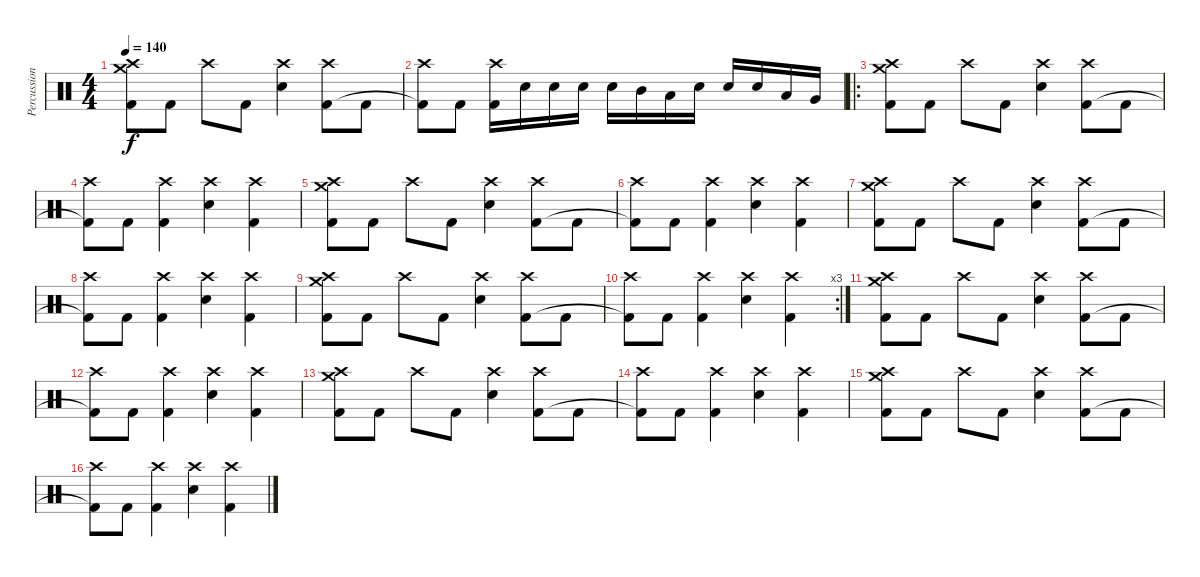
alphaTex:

\track ("Percussion" "Percussion") {instrument percussion}
\staff {score}
\articulation defaults
\ts (4 4)
\tempo 140
\clef neutral
\ks c
("Crash medium (hit)" "Crash high (hit)" "Kick (hit) 2").8{dy f} "Kick (hit) 2".8 "Crash high (hit)".8 "Kick (hit) 2".8 ("Crash high (hit)" "Electric Snare (hit)").4 ("Crash high (hit)" "Kick (hit) 2").8 "Kick (hit) 2".8 |
("Crash high (hit)" "Kick (hit) 2"{t}).8 "Kick (hit) 2".8 ("Crash high (hit)" "Kick (hit) 2").16 "Electric Snare (hit)".16 "Electric Snare (hit)".16 "Electric Snare (hit)".16 "Electric Snare (hit)".16 "Mid Tom (hit)".16 "Low Tom (hit)".16 "Electric Snare (hit)".16 "Electric Snare (hit)".16 "Electric Snare (hit)".16 "Low Tom (hit)".16 "Very Low Tom (hit)".16 |
\ro
("Crash medium (hit)" "Crash high (hit)" "Kick (hit) 2").8 "Kick (hit) 2".8 "Crash high (hit)".8 "Kick (hit) 2".8 ("Crash high (hit)" "Electric Snare (hit)").4 ("Crash high (hit)" "Kick (hit) 2").8 "Kick (hit) 2".8 |
("Crash high (hit)" "Kick (hit) 2"{t}).8 "Kick (hit) 2".8 ("Crash high (hit)" "Kick (hit) 2").4 ("Crash high (hit)" "Electric Snare (hit)").4 ("Crash high (hit)" "Kick (hit) 2").4 |
("Crash medium (hit)" "Crash high (hit)" "Kick (hit) 2").8 "Kick (hit) 2".8 "Crash high (hit)".8 "Kick (hit) 2".8 ("Crash high (hit)" "Electric Snare (hit)").4 ("Crash high (hit)" "Kick (hit) 2").8 "Kick (hit) 2".8 |
("Crash high (hit)" "Kick (hit) 2"{t}).8 "Kick (hit) 2".8 ("Crash high (hit)" "Kick (hit) 2").4 ("Crash high (hit)" "Electric Snare (hit)").4 ("Crash high (hit)" "Kick (hit) 2").4 |
("Crash medium (hit)" "Crash high (hit)" "Kick (hit) 2").8 "Kick (hit) 2".8 "Crash high (hit)".8 "Kick (hit) 2".8 ("Crash high (hit)" "Electric Snare (hit)").4 ("Crash high (hit)" "Kick (hit) 2").8 "Kick (hit) 2".8 |
("Crash high (hit)" "Kick (hit) 2"{t}).8 "Kick (hit) 2".8 ("Crash high (hit)" "Kick (hit) 2").4 ("Crash high (hit)" "Electric Snare (hit)").4 ("Crash high (hit)" "Kick (hit) 2").4 |
("Crash medium (hit)" "Crash high (hit)" "Kick (hit) 2").8 "Kick (hit) 2".8 "Crash high (hit)".8 "Kick (hit) 2".8 ("Crash high (hit)" "Electric Snare (hit)").4 ("Crash high (hit)" "Kick (hit) 2").8 "Kick (hit) 2".8 |
\rc 3
("Crash high (hit)" "Kick (hit) 2"{t}).8 "Kick (hit) 2".8 ("Crash high (hit)" "Kick (hit) 2").4 ("Crash high (hit)" "Electric Snare (hit)").4 ("Crash high (hit)" "Kick (hit) 2").4 |
("Crash medium (hit)" "Crash high (hit)" "Kick (hit) 2").8 "Kick (hit) 2".8 "Crash high (hit)".8 "Kick (hit) 2".8 ("Crash high (hit)" "Electric Snare (hit)").4 ("Crash high (hit)" "Kick (hit) 2").8 "Kick (hit) 2".8 |
("Crash high (hit)" "Kick (hit) 2"{t}).8 "Kick (hit) 2".8 ("Crash high (hit)" "Kick (hit) 2").4 ("Crash high (hit)" "Electric Snare (hit)").4 ("Crash high (hit)" "Kick (hit) 2").4 |
("Crash medium (hit)" "Crash high (hit)" "Kick (hit) 2").8 "Kick (hit) 2".8 "Crash high (hit)".8 "Kick (hit) 2".8 ("Crash high (hit)" "Electric Snare (hit)").4 ("Crash high (hit)" "Kick (hit) 2").8 "Kick (hit) 2".8 |
("Crash high (hit)" "Kick (hit) 2"{t}).8 "Kick (hit) 2".8 ("Crash high (hit)" "Kick (hit) 2").4 ("Crash high (hit)" "Electric Snare (hit)").4 ("Crash high (hit)" "Kick (hit) 2").4 |
("Crash medium (hit)" "Crash high (hit)" "Kick (hit) 2").8 "Kick (hit) 2".8 "Crash high (hit)".8 "Kick (hit) 2".8 ("Crash high (hit)" "Electric Snare (hit)").4 ("Crash high (hit)" "Kick (hit) 2").8 "Kick (hit) 2".8 |
("Crash high (hit)" "Kick (hit) 2"{t}).8 "Kick (hit) 2".8 ("Crash high (hit)" "Kick (hit) 2").4 ("Crash high (hit)" "Electric Snare (hit)").4 ("Crash high (hit)" "Kick (hit) 2").4
